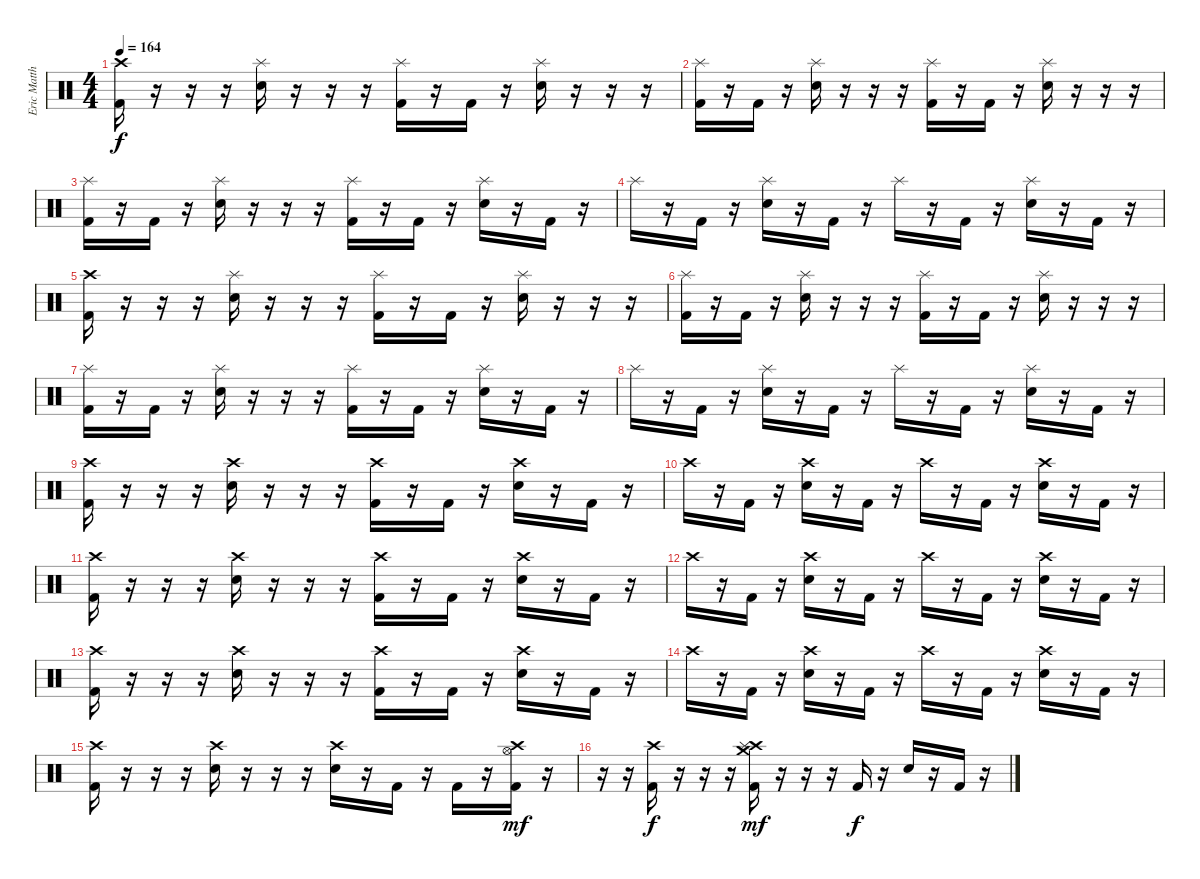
\track ("Eric Matthews (drums)" "Eric Matth") {instrument percussion}
\staff {score}
\articulation defaults
\ts (4 4)
\tempo 164
\clef neutral
\ks c
("Crash high (hit)" "Kick (hit) 2").16{dy f} r.16 r.16 r.16 ("Splash (hit)" "Snare (hit) 2").16 r.16 r.16 r.16 ("Splash (hit)" "Kick (hit) 2").16 r.16 "Kick (hit) 2".16 r.16 ("Splash (hit)" "Snare (hit) 2").16 r.16 r.16 r.16 |
("Splash (hit)" "Kick (hit) 2").16 r.16 "Kick (hit) 2".16 r.16 ("Splash (hit)" "Snare (hit) 2").16 r.16 r.16 r.16 ("Splash (hit)" "Kick (hit) 2").16 r.16 "Kick (hit) 2".16 r.16 ("Splash (hit)" "Snare (hit) 2").16 r.16 r.16 r.16 |
("Splash (hit)" "Kick (hit) 2").16 r.16 "Kick (hit) 2".16 r.16 ("Splash (hit)" "Snare (hit) 2").16 r.16 r.16 r.16 ("Splash (hit)" "Kick (hit) 2").16 r.16 "Kick (hit) 2".16 r.16 ("Splash (hit)" "Snare (hit) 2").16 r.16 "Kick (hit) 2".16 r.16 |
"Splash (hit)".16 r.16 "Kick (hit) 2".16 r.16 ("Splash (hit)" "Snare (hit) 2").16 r.16 "Kick (hit) 2".16 r.16 "Splash (hit)".16 r.16 "Kick (hit) 2".16 r.16 ("Splash (hit)" "Snare (hit) 2").16 r.16 "Kick (hit) 2".16 r.16 |
("Crash high (hit)" "Kick (hit) 2").16 r.16 r.16 r.16 ("Splash (hit)" "Snare (hit) 2").16 r.16 r.16 r.16 ("Splash (hit)" "Kick (hit) 2").16 r.16 "Kick (hit) 2".16 r.16 ("Splash (hit)" "Snare (hit) 2").16 r.16 r.16 r.16 |
("Splash (hit)" "Kick (hit) 2").16 r.16 "Kick (hit) 2".16 r.16 ("Splash (hit)" "Snare (hit) 2").16 r.16 r.16 r.16 ("Splash (hit)" "Kick (hit) 2").16 r.16 "Kick (hit) 2".16 r.16 ("Splash (hit)" "Snare (hit) 2").16 r.16 r.16 r.16 |
("Splash (hit)" "Kick (hit) 2").16 r.16 "Kick (hit) 2".16 r.16 ("Splash (hit)" "Snare (hit) 2").16 r.16 r.16 r.16 ("Splash (hit)" "Kick (hit) 2").16 r.16 "Kick (hit) 2".16 r.16 ("Splash (hit)" "Snare (hit) 2").16 r.16 "Kick (hit) 2".16 r.16 |
"Splash (hit)".16 r.16 "Kick (hit) 2".16 r.16 ("Splash (hit)" "Snare (hit) 2").16 r.16 "Kick (hit) 2".16 r.16 "Splash (hit)".16 r.16 "Kick (hit) 2".16 r.16 ("Splash (hit)" "Snare (hit) 2").16 r.16 "Kick (hit) 2".16 r.16 |
("Crash high (hit)" "Kick (hit) 2").16{volume 15} r.16 r.16 r.16 ("Crash high (hit)" "Snare (hit) 2").16 r.16 r.16 r.16 ("Crash high (hit)" "Kick (hit) 2").16 r.16 "Kick (hit) 2".16 r.16 ("Crash high (hit)" "Snare (hit) 2").16 r.16 "Kick (hit) 2".16 r.16 |
"Crash high (hit)".16 r.16 "Kick (hit) 2".16 r.16 ("Crash high (hit)" "Snare (hit) 2").16 r.16 "Kick (hit) 2".16 r.16 "Crash high (hit)".16 r.16 "Kick (hit) 2".16 r.16 ("Crash high (hit)" "Snare (hit) 2").16 r.16 "Kick (hit) 2".16 r.16 |
("Crash high (hit)" "Kick (hit) 2").16 r.16 r.16 r.16 ("Crash high (hit)" "Snare (hit) 2").16 r.16 r.16 r.16 ("Crash high (hit)" "Kick (hit) 2").16 r.16 "Kick (hit) 2".16 r.16 ("Crash high (hit)" "Snare (hit) 2").16 r.16 "Kick (hit) 2".16 r.16 |
"Crash high (hit)".16 r.16 "Kick (hit) 2".16 r.16 ("Crash high (hit)" "Snare (hit) 2").16 r.16 "Kick (hit) 2".16 r.16 "Crash high (hit)".16 r.16 "Kick (hit) 2".16 r.16 ("Crash high (hit)" "Snare (hit) 2").16 r.16 "Kick (hit) 2".16 r.16 |
("Crash high (hit)" "Kick (hit) 2").16 r.16 r.16 r.16 ("Crash high (hit)" "Snare (hit) 2").16 r.16 r.16 r.16 ("Crash high (hit)" "Kick (hit) 2").16 r.16 "Kick (hit) 2".16 r.16 ("Crash high (hit)" "Snare (hit) 2").16 r.16 "Kick (hit) 2".16 r.16 |
"Crash high (hit)".16 r.16 "Kick (hit) 2".16 r.16 ("Crash high (hit)" "Snare (hit) 2").16 r.16 "Kick (hit) 2".16 r.16 "Crash high (hit)".16 r.16 "Kick (hit) 2".16 r.16 ("Crash high (hit)" "Snare (hit) 2").16 r.16 "Kick (hit) 2".16 r.16 |
("Crash high (hit)" "Kick (hit) 2").16 r.16 r.16 r.16 ("Crash high (hit)" "Snare (hit) 2").16 r.16 r.16 r.16 ("Crash high (hit)" "Snare (hit) 2").16 r.16 "Kick (hit) 2".16 r.16 "Kick (hit) 2".16 r.16 ("Crash high (hit)"{pm} "Hi-Hat (open)"{pm} "Kick (hit) 2").16{dy mf} r.16 |
r.16 r.16 ("Crash high (hit)"{pm} "Kick (hit) 2").16{dy f} r.16 r.16 r.16 ("Crash medium (hit)" "Crash high (hit)" "Splash (hit)" "Kick (hit) 2").16{dy mf} r.16 r.16 r.16 "Kick (hit) 2".16{dy f} r.16 "Snare (hit) 2".16 r.16 "Kick (hit) 2".16 r.16
